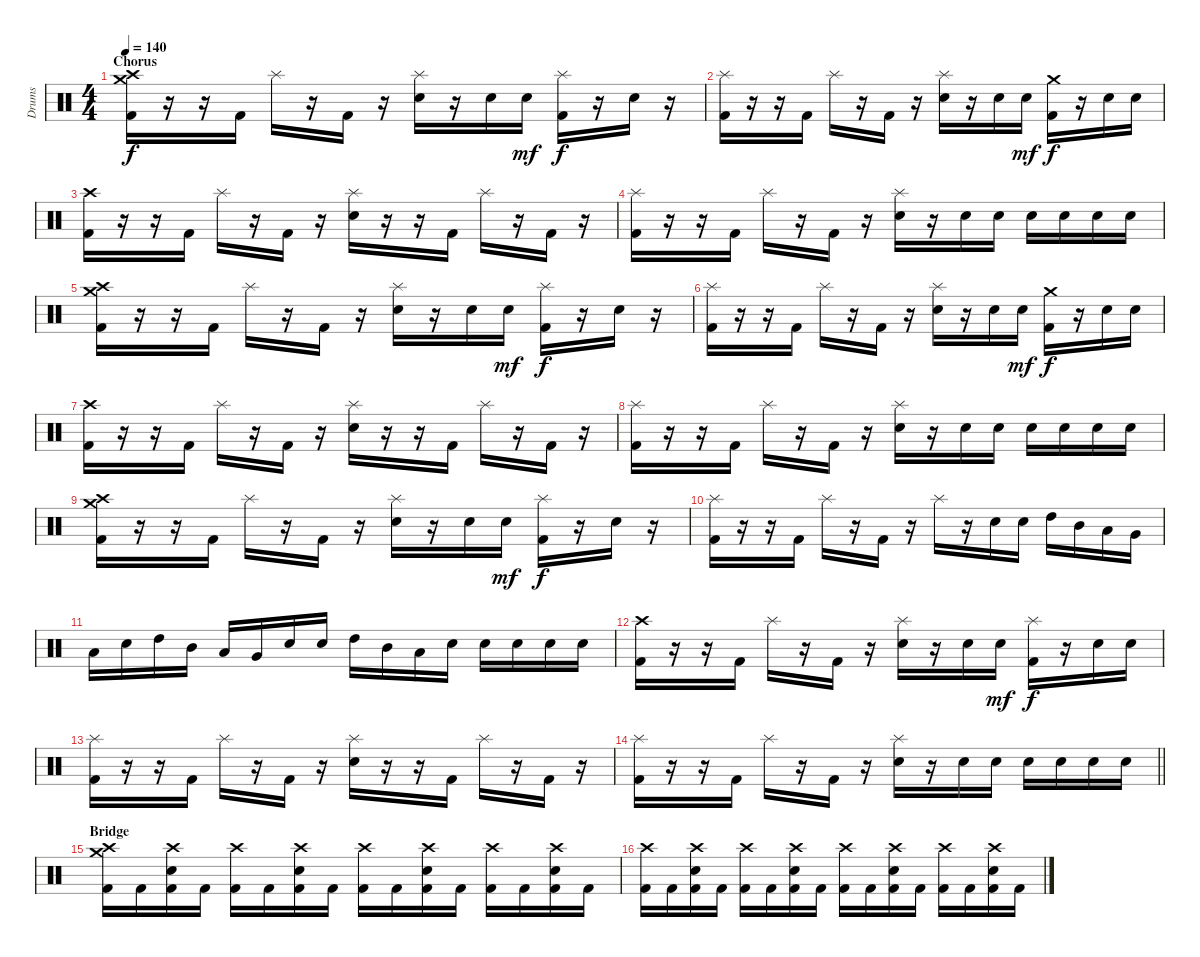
\track ("Drums" "Drums") {instrument percussion}
\staff {score}
\articulation defaults
\ts (4 4)
\section ("" "Chorus")
\tempo 140
\clef neutral
\ks c
("Crash high (hit)" "Crash medium (hit)" "Kick (hit) 2").16{dy f} r.16 r.16 "Kick (hit) 2".16 "Splash (hit)".16 r.16 "Kick (hit) 2".16 r.16 ("Splash (hit)" "Electric Snare (hit)").16 r.16 "Electric Snare (hit)".16 "Electric Snare (hit)".16{dy mf} ("Splash (hit)" "Kick (hit) 2").16{dy f} r.16 "Electric Snare (hit)".16 r.16 |
("Splash (hit)" "Kick (hit) 2").16 r.16 r.16 "Kick (hit) 2".16 "Splash (hit)".16 r.16 "Kick (hit) 2".16 r.16 ("Splash (hit)" "Electric Snare (hit)").16 r.16 "Electric Snare (hit)".16 "Electric Snare (hit)".16{dy mf} ("Crash medium (hit)" "Kick (hit) 2").16{dy f} r.16 "Electric Snare (hit)".16 "Electric Snare (hit)".16 |
("Crash high (hit)" "Kick (hit) 2").16 r.16 r.16 "Kick (hit) 2".16 "Splash (hit)".16 r.16 "Kick (hit) 2".16 r.16 ("Splash (hit)" "Electric Snare (hit)").16 r.16 r.16 "Kick (hit) 2".16 "Splash (hit)".16 r.16 "Kick (hit) 2".16 r.16 |
("Splash (hit)" "Kick (hit) 2").16 r.16 r.16 "Kick (hit) 2".16 "Splash (hit)".16 r.16 "Kick (hit) 2".16 r.16 ("Splash (hit)" "Electric Snare (hit)").16 r.16 "Electric Snare (hit)".16 "Electric Snare (hit)".16 "Electric Snare (hit)".16 "Electric Snare (hit)".16 "Electric Snare (hit)".16 "Electric Snare (hit)".16 |
("Crash high (hit)" "Crash medium (hit)" "Kick (hit) 2").16 r.16 r.16 "Kick (hit) 2".16 "Splash (hit)".16 r.16 "Kick (hit) 2".16 r.16 ("Splash (hit)" "Electric Snare (hit)").16 r.16 "Electric Snare (hit)".16 "Electric Snare (hit)".16{dy mf} ("Splash (hit)" "Kick (hit) 2").16{dy f} r.16 "Electric Snare (hit)".16 r.16 |
("Splash (hit)" "Kick (hit) 2").16 r.16 r.16 "Kick (hit) 2".16 "Splash (hit)".16 r.16 "Kick (hit) 2".16 r.16 ("Splash (hit)" "Electric Snare (hit)").16 r.16 "Electric Snare (hit)".16 "Electric Snare (hit)".16{dy mf} ("Crash medium (hit)" "Kick (hit) 2").16{dy f} r.16 "Electric Snare (hit)".16 "Electric Snare (hit)".16 |
("Crash high (hit)" "Kick (hit) 2").16 r.16 r.16 "Kick (hit) 2".16 "Splash (hit)".16 r.16 "Kick (hit) 2".16 r.16 ("Splash (hit)" "Electric Snare (hit)").16 r.16 r.16 "Kick (hit) 2".16 "Splash (hit)".16 r.16 "Kick (hit) 2".16 r.16 |
("Splash (hit)" "Kick (hit) 2").16 r.16 r.16 "Kick (hit) 2".16 "Splash (hit)".16 r.16 "Kick (hit) 2".16 r.16 ("Splash (hit)" "Electric Snare (hit)").16 r.16 "Electric Snare (hit)".16 "Electric Snare (hit)".16 "Electric Snare (hit)".16 "Electric Snare (hit)".16 "Electric Snare (hit)".16 "Electric Snare (hit)".16 |
("Crash high (hit)" "Crash medium (hit)" "Kick (hit) 2").16 r.16 r.16 "Kick (hit) 2".16 "Splash (hit)".16 r.16 "Kick (hit) 2".16 r.16 ("Splash (hit)" "Electric Snare (hit)").16 r.16 "Electric Snare (hit)".16 "Electric Snare (hit)".16{dy mf} ("Splash (hit)" "Kick (hit) 2").16{dy f} r.16 "Electric Snare (hit)".16 r.16 |
("Splash (hit)" "Kick (hit) 2").16 r.16 r.16 "Kick (hit) 2".16 "Splash (hit)".16 r.16 "Kick (hit) 2".16 r.16 "Splash (hit)".16 r.16 "Electric Snare (hit)".16 "Electric Snare (hit)".16 "High Tom (hit)".16 "Mid Tom (hit)".16 "Low Tom (hit)".16 "Very Low Tom (hit)".16 |
"Low Floor Tom (hit)".16 "Electric Snare (hit)".16 "High Tom (hit)".16 "Mid Tom (hit)".16 "Low Tom (hit)".16 "Very Low Tom (hit)".16 "Electric Snare (hit)".16 "Electric Snare (hit)".16 "High Tom (hit)".16 "Mid Tom (hit)".16 "Low Tom (hit)".16 "Electric Snare (hit)".16 "Electric Snare (hit)".16 "Electric Snare (hit)".16 "Electric Snare (hit)".16 "Electric Snare (hit)".16 |
("Crash high (hit)" "Kick (hit) 2").16 r.16 r.16 "Kick (hit) 2".16 "Splash (hit)".16 r.16 "Kick (hit) 2".16 r.16 ("Splash (hit)" "Electric Snare (hit)").16 r.16 "Electric Snare (hit)".16 "Electric Snare (hit)".16{dy mf} ("Splash (hit)" "Kick (hit) 2").16{dy f} r.16 "Electric Snare (hit)".16 "Electric Snare (hit)".16 |
("Splash (hit)" "Kick (hit) 2").16 r.16 r.16 "Kick (hit) 2".16 "Splash (hit)".16 r.16 "Kick (hit) 2".16 r.16 ("Splash (hit)" "Electric Snare (hit)").16 r.16 r.16 "Kick (hit) 2".16 "Splash (hit)".16 r.16 "Kick (hit) 2".16 r.16 |
\barLineRight lightlight
("Splash (hit)" "Kick (hit) 2").16 r.16 r.16 "Kick (hit) 2".16 "Splash (hit)".16 r.16 "Kick (hit) 2".16 r.16 ("Splash (hit)" "Electric Snare (hit)").16 r.16 "Electric Snare (hit)".16 "Electric Snare (hit)".16 "Electric Snare (hit)".16 "Electric Snare (hit)".16 "Electric Snare (hit)".16 "Electric Snare (hit)".16 |
\section ("" "Bridge")
("Crash high (hit)" "Crash medium (hit)" "Kick (hit) 2").16 "Kick (hit) 2".16 ("Crash high (hit)" "Electric Snare (hit)" "Kick (hit) 2").16 "Kick (hit) 2".16 ("Crash high (hit)" "Kick (hit) 2").16 "Kick (hit) 2".16 ("Crash high (hit)" "Electric Snare (hit)" "Kick (hit) 2").16 "Kick (hit) 2".16 ("Crash high (hit)" "Kick (hit) 2").16 "Kick (hit) 2".16 ("Crash high (hit)" "Electric Snare (hit)" "Kick (hit) 2").16 "Kick (hit) 2".16 ("Crash high (hit)" "Kick (hit) 2").16 "Kick (hit) 2".16 ("Crash high (hit)" "Electric Snare (hit)" "Kick (hit) 2").16 "Kick (hit) 2".16 |
("Crash high (hit)" "Kick (hit) 2").16 "Kick (hit) 2".16 ("Crash high (hit)" "Electric Snare (hit)" "Kick (hit) 2").16 "Kick (hit) 2".16 ("Crash high (hit)" "Kick (hit) 2").16 "Kick (hit) 2".16 ("Crash high (hit)" "Electric Snare (hit)" "Kick (hit) 2").16 "Kick (hit) 2".16 ("Crash high (hit)" "Kick (hit) 2").16 "Kick (hit) 2".16 ("Crash high (hit)" "Electric Snare (hit)" "Kick (hit) 2").16 "Kick (hit) 2".16 ("Crash high (hit)" "Kick (hit) 2").16 "Kick (hit) 2".16 ("Crash high (hit)" "Electric Snare (hit)" "Kick (hit) 2").16 "Kick (hit) 2".16
